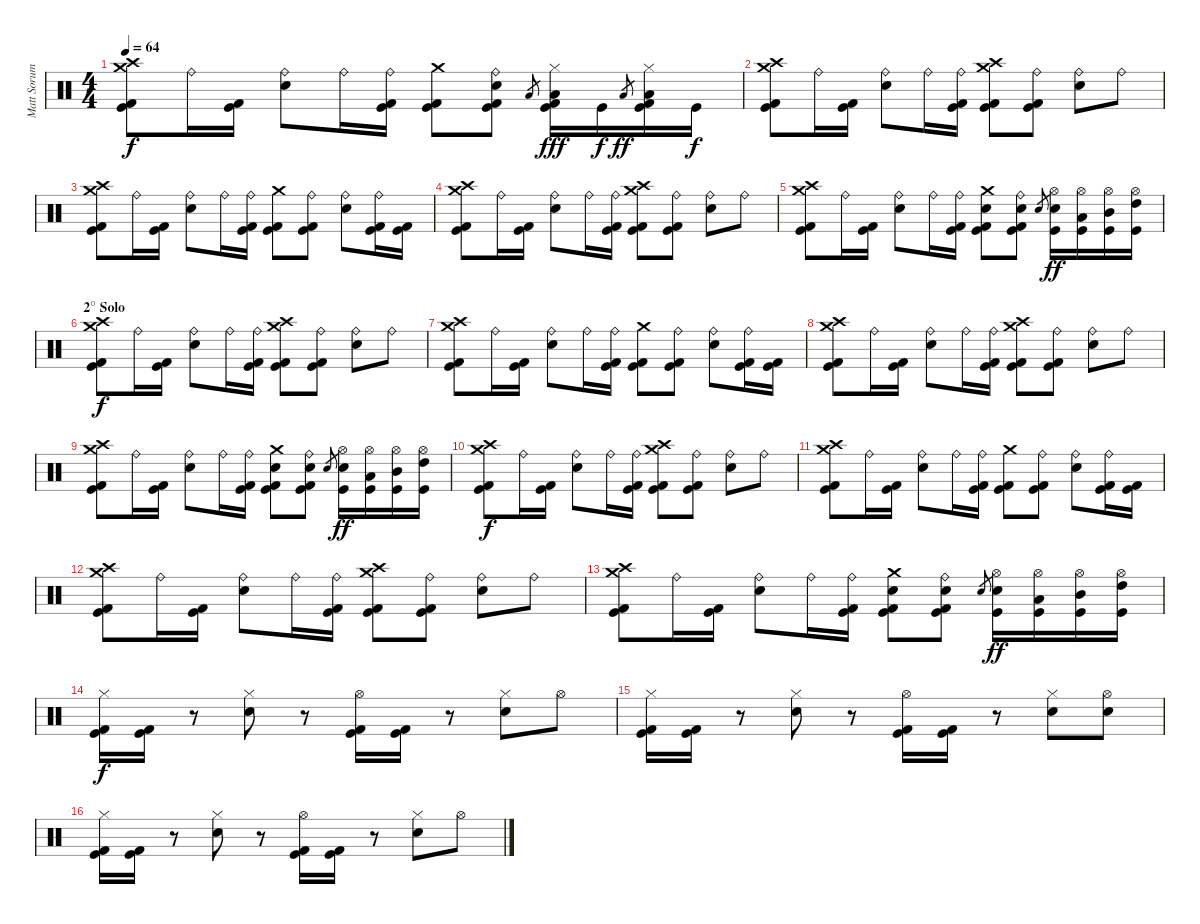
\track ("Matt Sorum" "Matt Sorum") {instrument percussion}
\staff {score}
\articulation defaults
\ts (4 4)
\tempo 64
\clef neutral
\ks c
("Crash medium (hit)" "Crash high (hit)" "Kick (hit) 2" "Kick (hit)").8{dy f} "Ride (bell)".16 ("Kick (hit) 2" "Kick (hit)").16 ("Ride (bell)" "Electric Snare (hit)").8 "Ride (bell)".16 ("Ride (bell)" "Kick (hit) 2" "Kick (hit)").16 ("Crash medium (hit)" "Kick (hit) 2" "Kick (hit)").8 ("Ride (bell)" "Electric Snare (hit)" "Kick (hit) 2" "Kick (hit)").8 "Low Tom (hit)".8{gr} ("Hi-Hat (closed)" "Low Tom (hit)" "Kick (hit) 2" "Kick (hit)").16{dy fff} "Kick (hit)".16{dy f} "Low Tom (hit)".8{gr dy ff} ("Hi-Hat (closed)" "Low Tom (hit)" "Kick (hit) 2" "Kick (hit)").16 "Kick (hit)".16{dy f} |
("Crash medium (hit)" "Crash high (hit)" "Kick (hit) 2" "Kick (hit)").8 "Ride (bell)".16 ("Kick (hit) 2" "Kick (hit)").16 ("Ride (bell)" "Electric Snare (hit)").8 "Ride (bell)".16 ("Ride (bell)" "Kick (hit) 2" "Kick (hit)").16 ("Crash medium (hit)" "Crash high (hit)" "Kick (hit) 2" "Kick (hit)").8 ("Ride (bell)" "Kick (hit) 2" "Kick (hit)").8 ("Ride (bell)" "Electric Snare (hit)").8 "Ride (bell)".8 |
("Crash medium (hit)" "Crash high (hit)" "Kick (hit) 2" "Kick (hit)").8 "Ride (bell)".16 ("Kick (hit) 2" "Kick (hit)").16 ("Ride (bell)" "Electric Snare (hit)").8 "Ride (bell)".16 ("Ride (bell)" "Kick (hit) 2" "Kick (hit)").16 ("Crash medium (hit)" "Kick (hit) 2" "Kick (hit)").8 ("Ride (bell)" "Kick (hit) 2" "Kick (hit)").8 ("Ride (bell)" "Electric Snare (hit)").8 ("Ride (bell)" "Kick (hit) 2" "Kick (hit)").16 ("Kick (hit) 2" "Kick (hit)").16 |
("Crash medium (hit)" "Crash high (hit)" "Kick (hit) 2" "Kick (hit)").8 "Ride (bell)".16 ("Kick (hit) 2" "Kick (hit)").16 ("Ride (bell)" "Electric Snare (hit)").8 "Ride (bell)".16 ("Ride (bell)" "Kick (hit) 2" "Kick (hit)").16 ("Crash medium (hit)" "Crash high (hit)" "Kick (hit) 2" "Kick (hit)").8 ("Ride (bell)" "Kick (hit) 2" "Kick (hit)").8 ("Ride (bell)" "Electric Snare (hit)").8 "Ride (bell)".8 |
("Crash medium (hit)" "Crash high (hit)" "Kick (hit) 2" "Kick (hit)").8 "Ride (bell)".16 ("Kick (hit) 2" "Kick (hit)").16 ("Ride (bell)" "Electric Snare (hit)").8 "Ride (bell)".16 ("Ride (bell)" "Kick (hit) 2" "Kick (hit)").16 ("Crash medium (hit)" "Electric Snare (hit)" "Kick (hit) 2" "Kick (hit)").8 ("Ride (bell)" "Electric Snare (hit)" "Kick (hit) 2" "Kick (hit)").8 "Electric Snare (hit)".8{gr} ("Hi-Hat (open)" "Electric Snare (hit)" "Kick (hit)").16{dy ff} ("Hi-Hat (open)" "Low Tom (hit)" "Kick (hit)").16 ("Hi-Hat (open)" "Mid Tom (hit)" "Kick (hit)").16 ("Hi-Hat (open)" "High Tom (hit)" "Kick (hit)").16 |
\section ("" "2° Solo")
("Crash medium (hit)" "Crash high (hit)" "Kick (hit) 2" "Kick (hit)").8{dy f} "Ride (bell)".16 ("Kick (hit) 2" "Kick (hit)").16 ("Ride (bell)" "Electric Snare (hit)").8 "Ride (bell)".16 ("Ride (bell)" "Kick (hit) 2" "Kick (hit)").16 ("Crash medium (hit)" "Crash high (hit)" "Kick (hit) 2" "Kick (hit)").8 ("Ride (bell)" "Kick (hit) 2" "Kick (hit)").8 ("Ride (bell)" "Electric Snare (hit)").8 "Ride (bell)".8 |
("Crash medium (hit)" "Crash high (hit)" "Kick (hit) 2" "Kick (hit)").8 "Ride (bell)".16 ("Kick (hit) 2" "Kick (hit)").16 ("Ride (bell)" "Electric Snare (hit)").8 "Ride (bell)".16 ("Ride (bell)" "Kick (hit) 2" "Kick (hit)").16 ("Crash medium (hit)" "Kick (hit) 2" "Kick (hit)").8 ("Ride (bell)" "Kick (hit) 2" "Kick (hit)").8 ("Ride (bell)" "Electric Snare (hit)").8 ("Ride (bell)" "Kick (hit) 2" "Kick (hit)").16 ("Kick (hit) 2" "Kick (hit)").16 |
("Crash medium (hit)" "Crash high (hit)" "Kick (hit) 2" "Kick (hit)").8 "Ride (bell)".16 ("Kick (hit) 2" "Kick (hit)").16 ("Ride (bell)" "Electric Snare (hit)").8 "Ride (bell)".16 ("Ride (bell)" "Kick (hit) 2" "Kick (hit)").16 ("Crash medium (hit)" "Crash high (hit)" "Kick (hit) 2" "Kick (hit)").8 ("Ride (bell)" "Kick (hit) 2" "Kick (hit)").8 ("Ride (bell)" "Electric Snare (hit)").8 "Ride (bell)".8 |
("Crash medium (hit)" "Crash high (hit)" "Kick (hit) 2" "Kick (hit)").8 "Ride (bell)".16 ("Kick (hit) 2" "Kick (hit)").16 ("Ride (bell)" "Electric Snare (hit)").8 "Ride (bell)".16 ("Ride (bell)" "Kick (hit) 2" "Kick (hit)").16 ("Crash medium (hit)" "Electric Snare (hit)" "Kick (hit) 2" "Kick (hit)").8 ("Ride (bell)" "Electric Snare (hit)" "Kick (hit) 2" "Kick (hit)").8 "Electric Snare (hit)".8{gr} ("Hi-Hat (open)" "Electric Snare (hit)" "Kick (hit)").16{dy ff} ("Hi-Hat (open)" "Low Tom (hit)" "Kick (hit)").16 ("Hi-Hat (open)" "Mid Tom (hit)" "Kick (hit)").16 ("Hi-Hat (open)" "High Tom (hit)" "Kick (hit)").16 |
("Crash medium (hit)" "Crash high (hit)" "Kick (hit) 2" "Kick (hit)").8{dy f} "Ride (bell)".16 ("Kick (hit) 2" "Kick (hit)").16 ("Ride (bell)" "Electric Snare (hit)").8 "Ride (bell)".16 ("Ride (bell)" "Kick (hit) 2" "Kick (hit)").16 ("Crash medium (hit)" "Crash high (hit)" "Kick (hit) 2" "Kick (hit)").8 ("Ride (bell)" "Kick (hit) 2" "Kick (hit)").8 ("Ride (bell)" "Electric Snare (hit)").8 "Ride (bell)".8 |
("Crash medium (hit)" "Crash high (hit)" "Kick (hit) 2" "Kick (hit)").8 "Ride (bell)".16 ("Kick (hit) 2" "Kick (hit)").16 ("Ride (bell)" "Electric Snare (hit)").8 "Ride (bell)".16 ("Ride (bell)" "Kick (hit) 2" "Kick (hit)").16 ("Crash medium (hit)" "Kick (hit) 2" "Kick (hit)").8 ("Ride (bell)" "Kick (hit) 2" "Kick (hit)").8 ("Ride (bell)" "Electric Snare (hit)").8 ("Ride (bell)" "Kick (hit) 2" "Kick (hit)").16 ("Kick (hit) 2" "Kick (hit)").16 |
("Crash medium (hit)" "Crash high (hit)" "Kick (hit) 2" "Kick (hit)").8 "Ride (bell)".16 ("Kick (hit) 2" "Kick (hit)").16 ("Ride (bell)" "Electric Snare (hit)").8 "Ride (bell)".16 ("Ride (bell)" "Kick (hit) 2" "Kick (hit)").16 ("Crash medium (hit)" "Crash high (hit)" "Kick (hit) 2" "Kick (hit)").8 ("Ride (bell)" "Kick (hit) 2" "Kick (hit)").8 ("Ride (bell)" "Electric Snare (hit)").8 "Ride (bell)".8 |
("Crash medium (hit)" "Crash high (hit)" "Kick (hit) 2" "Kick (hit)").8 "Ride (bell)".16 ("Kick (hit) 2" "Kick (hit)").16 ("Ride (bell)" "Electric Snare (hit)").8 "Ride (bell)".16 ("Ride (bell)" "Kick (hit) 2" "Kick (hit)").16 ("Crash medium (hit)" "Electric Snare (hit)" "Kick (hit) 2" "Kick (hit)").8 ("Ride (bell)" "Electric Snare (hit)" "Kick (hit) 2" "Kick (hit)").8 "Electric Snare (hit)".8{gr} ("Hi-Hat (open)" "Electric Snare (hit)" "Kick (hit)").16{dy ff} ("Hi-Hat (open)" "Low Tom (hit)" "Kick (hit)").16 ("Hi-Hat (open)" "Mid Tom (hit)" "Kick (hit)").16 ("Hi-Hat (open)" "High Tom (hit)" "Kick (hit)").16 |
("Hi-Hat (closed)" "Kick (hit) 2" "Kick (hit)").16{dy f} ("Kick (hit) 2" "Kick (hit)").16 r.8 ("Hi-Hat (closed)" "Electric Snare (hit)").8 r.8 ("Hi-Hat (open)" "Kick (hit) 2" "Kick (hit)").16 ("Kick (hit) 2" "Kick (hit)").16 r.8 ("Hi-Hat (closed)" "Electric Snare (hit)").8 "Hi-Hat (open)".8 |
("Hi-Hat (closed)" "Kick (hit) 2" "Kick (hit)").16 ("Kick (hit) 2" "Kick (hit)").16 r.8 ("Hi-Hat (closed)" "Electric Snare (hit)").8 r.8 ("Hi-Hat (open)" "Kick (hit) 2" "Kick (hit)").16 ("Kick (hit) 2" "Kick (hit)").16 r.8 ("Hi-Hat (closed)" "Electric Snare (hit)").8 ("Hi-Hat (open)" "Electric Snare (hit)").8 |
("Hi-Hat (closed)" "Kick (hit) 2" "Kick (hit)").16 ("Kick (hit) 2" "Kick (hit)").16 r.8 ("Hi-Hat (closed)" "Electric Snare (hit)").8 r.8 ("Hi-Hat (open)" "Kick (hit) 2" "Kick (hit)").16 ("Kick (hit) 2" "Kick (hit)").16 r.8 ("Hi-Hat (closed)" "Electric Snare (hit)").8 "Hi-Hat (open)".8
